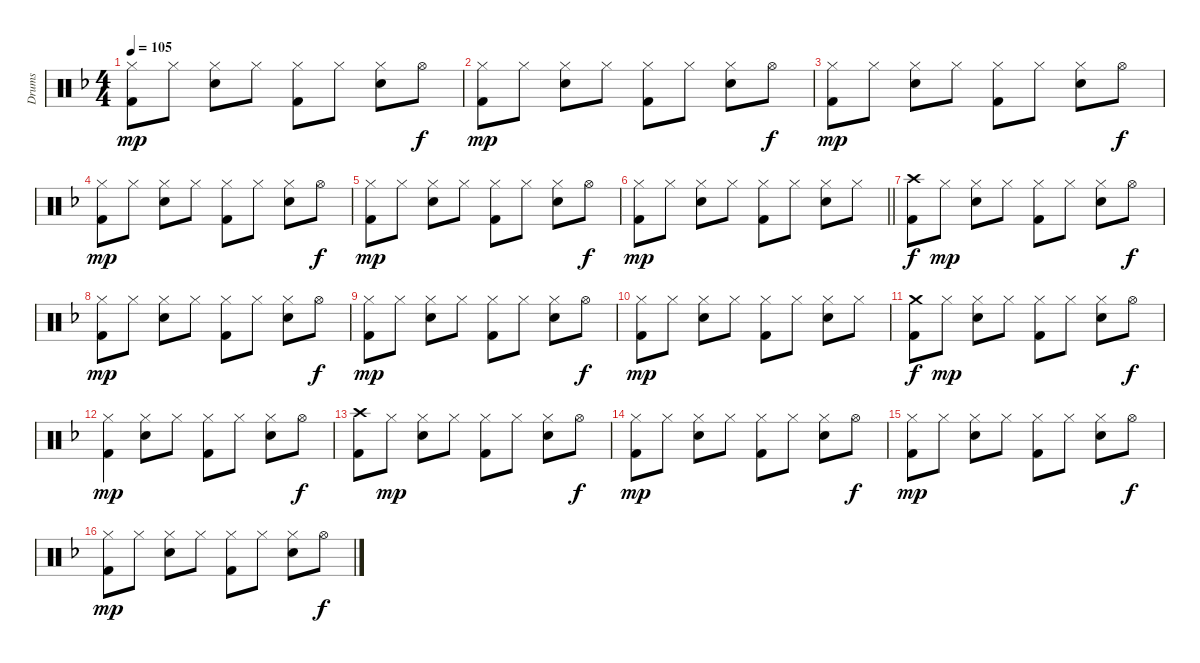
\track ("Drums" "Drums") {instrument percussion}
\staff {score}
\articulation defaults
\ts (4 4)
\tempo 105
\clef neutral
\ks dminor
("Hi-Hat (closed)" "Kick (hit) 2").8{dy mp} "Hi-Hat (closed)".8 ("Hi-Hat (closed)" "Snare (hit) 2").8 "Hi-Hat (closed)".8 ("Hi-Hat (closed)" "Kick (hit) 2").8 "Hi-Hat (closed)".8 ("Hi-Hat (closed)" "Snare (hit) 2").8 "Hi-Hat (open)".8{dy f} |
("Hi-Hat (closed)" "Kick (hit) 2").8{dy mp} "Hi-Hat (closed)".8 ("Hi-Hat (closed)" "Snare (hit) 2").8 "Hi-Hat (closed)".8 ("Hi-Hat (closed)" "Kick (hit) 2").8 "Hi-Hat (closed)".8 ("Hi-Hat (closed)" "Snare (hit) 2").8 "Hi-Hat (open)".8{dy f} |
("Hi-Hat (closed)" "Kick (hit) 2").8{dy mp} "Hi-Hat (closed)".8 ("Hi-Hat (closed)" "Snare (hit) 2").8 "Hi-Hat (closed)".8 ("Hi-Hat (closed)" "Kick (hit) 2").8 "Hi-Hat (closed)".8 ("Hi-Hat (closed)" "Snare (hit) 2").8 "Hi-Hat (open)".8{dy f} |
("Hi-Hat (closed)" "Kick (hit) 2").8{dy mp} "Hi-Hat (closed)".8 ("Hi-Hat (closed)" "Snare (hit) 2").8 "Hi-Hat (closed)".8 ("Hi-Hat (closed)" "Kick (hit) 2").8 "Hi-Hat (closed)".8 ("Hi-Hat (closed)" "Snare (hit) 2").8 "Hi-Hat (open)".8{dy f} |
("Hi-Hat (closed)" "Kick (hit) 2").8{dy mp} "Hi-Hat (closed)".8 ("Hi-Hat (closed)" "Snare (hit) 2").8 "Hi-Hat (closed)".8 ("Hi-Hat (closed)" "Kick (hit) 2").8 "Hi-Hat (closed)".8 ("Hi-Hat (closed)" "Snare (hit) 2").8 "Hi-Hat (open)".8{dy f} |
\barLineRight lightlight
("Hi-Hat (closed)" "Kick (hit) 2").8{dy mp} "Hi-Hat (closed)".8 ("Hi-Hat (closed)" "Snare (hit) 2").8 "Hi-Hat (closed)".8 ("Hi-Hat (closed)" "Kick (hit) 2").8 "Hi-Hat (closed)".8 ("Hi-Hat (closed)" "Snare (hit) 2").8 "Hi-Hat (closed)".8 |
("Crash high (hit)" "Kick (hit) 2").8{dy f} "Hi-Hat (closed)".8{dy mp} ("Hi-Hat (closed)" "Snare (hit) 2").8 "Hi-Hat (closed)".8 ("Hi-Hat (closed)" "Kick (hit) 2").8 "Hi-Hat (closed)".8 ("Hi-Hat (closed)" "Snare (hit) 2").8 "Hi-Hat (open)".8{dy f} |
("Hi-Hat (closed)" "Kick (hit) 2").8{dy mp} "Hi-Hat (closed)".8 ("Hi-Hat (closed)" "Snare (hit) 2").8 "Hi-Hat (closed)".8 ("Hi-Hat (closed)" "Kick (hit) 2").8 "Hi-Hat (closed)".8 ("Hi-Hat (closed)" "Snare (hit) 2").8 "Hi-Hat (open)".8{dy f} |
("Hi-Hat (closed)" "Kick (hit) 2").8{dy mp} "Hi-Hat (closed)".8 ("Hi-Hat (closed)" "Snare (hit) 2").8 "Hi-Hat (closed)".8 ("Hi-Hat (closed)" "Kick (hit) 2").8 "Hi-Hat (closed)".8 ("Hi-Hat (closed)" "Snare (hit) 2").8 "Hi-Hat (open)".8{dy f} |
("Hi-Hat (closed)" "Kick (hit) 2").8{dy mp} "Hi-Hat (closed)".8 ("Hi-Hat (closed)" "Snare (hit) 2").8 "Hi-Hat (closed)".8 ("Hi-Hat (closed)" "Kick (hit) 2").8 "Hi-Hat (closed)".8 ("Hi-Hat (closed)" "Snare (hit) 2").8 "Hi-Hat (closed)".8 |
("Crash medium (hit)" "Kick (hit) 2").8{dy f} "Hi-Hat (closed)".8{dy mp} ("Hi-Hat (closed)" "Snare (hit) 2").8 "Hi-Hat (closed)".8 ("Hi-Hat (closed)" "Kick (hit) 2").8 "Hi-Hat (closed)".8 ("Hi-Hat (closed)" "Snare (hit) 2").8 "Hi-Hat (open)".8{dy f} |
("Hi-Hat (closed)" "Kick (hit) 2").4{dy mp} ("Hi-Hat (closed)" "Snare (hit) 2").8 "Hi-Hat (closed)".8 ("Hi-Hat (closed)" "Kick (hit) 2").8 "Hi-Hat (closed)".8 ("Hi-Hat (closed)" "Snare (hit) 2").8 "Hi-Hat (open)".8{dy f} |
("Crash high (hit)" "Kick (hit) 2").8 "Hi-Hat (closed)".8{dy mp} ("Hi-Hat (closed)" "Snare (hit) 2").8 "Hi-Hat (closed)".8 ("Hi-Hat (closed)" "Kick (hit) 2").8 "Hi-Hat (closed)".8 ("Hi-Hat (closed)" "Snare (hit) 2").8 "Hi-Hat (open)".8{dy f} |
("Hi-Hat (closed)" "Kick (hit) 2").8{dy mp} "Hi-Hat (closed)".8 ("Hi-Hat (closed)" "Snare (hit) 2").8 "Hi-Hat (closed)".8 ("Hi-Hat (closed)" "Kick (hit) 2").8 "Hi-Hat (closed)".8 ("Hi-Hat (closed)" "Snare (hit) 2").8 "Hi-Hat (open)".8{dy f} |
("Hi-Hat (closed)" "Kick (hit) 2").8{dy mp} "Hi-Hat (closed)".8 ("Hi-Hat (closed)" "Snare (hit) 2").8 "Hi-Hat (closed)".8 ("Hi-Hat (closed)" "Kick (hit) 2").8 "Hi-Hat (closed)".8 ("Hi-Hat (closed)" "Snare (hit) 2").8 "Hi-Hat (open)".8{dy f} |
("Hi-Hat (closed)" "Kick (hit) 2").8{dy mp} "Hi-Hat (closed)".8 ("Hi-Hat (closed)" "Snare (hit) 2").8 "Hi-Hat (closed)".8 ("Hi-Hat (closed)" "Kick (hit) 2").8 "Hi-Hat (closed)".8 ("Hi-Hat (closed)" "Snare (hit) 2").8 "Hi-Hat (open)".8{dy f}
